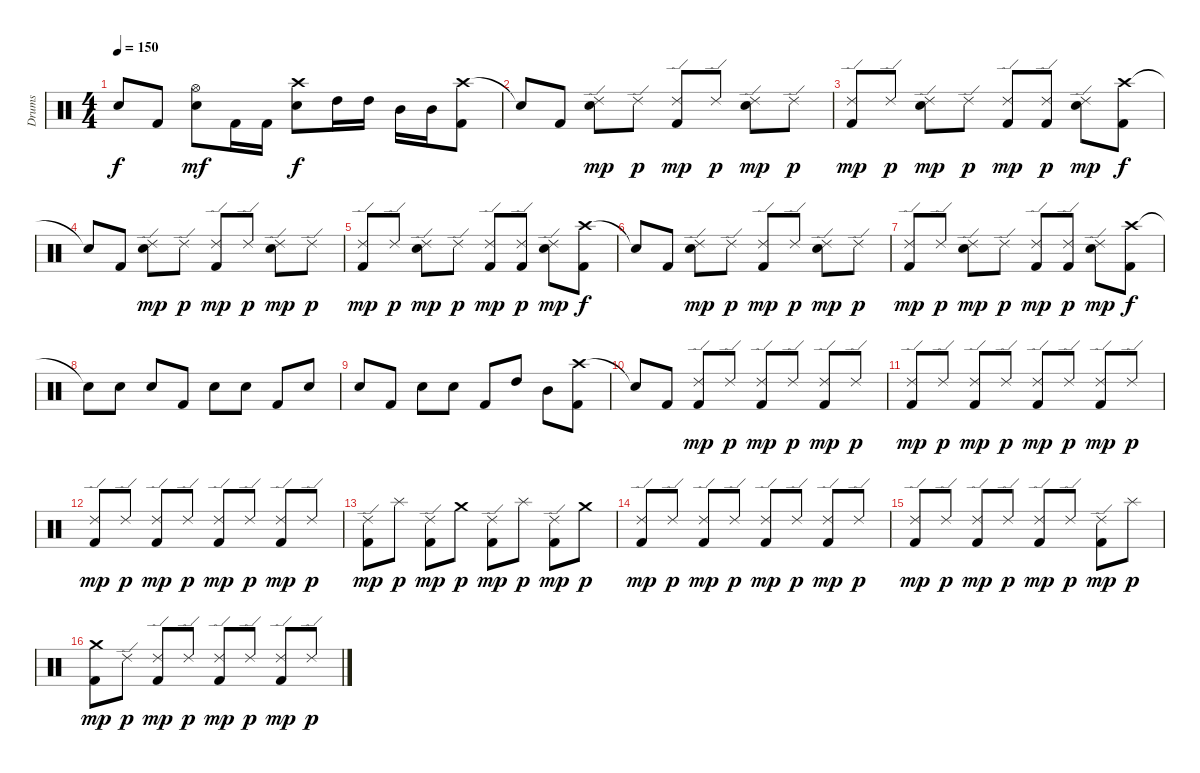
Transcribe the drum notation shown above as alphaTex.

\track ("Drums" "Drums") {instrument percussion}
\staff {score}
\articulation defaults
\ts (4 4)
\tempo 150
\clef neutral
\ks c "Snare (hit)"{t}.8{dy f} "Kick (hit) 2".8
("Hi-Hat (open)" "Electric Snare (hit)").8{dy mf} "Kick (hit) 2".16 "Kick (hit) 2".16 ("Crash high (hit)" "Electric Snare (hit)").8{dy f} "High Tom (hit)".16 "High Tom (hit)".16 "Mid Tom (hit)".16 "Mid Tom (hit)".16 ("Crash high (hit)" "Kick (hit) 2").8 |
"Snare (hit)"{t}.8 "Kick (hit) 2".8 ("Ride (edge) 2" "Electric Snare (hit)").8{dy mp} "Ride (edge) 2".8{dy p} ("Ride (edge) 2" "Kick (hit) 2").8{dy mp} "Ride (edge) 2".8{dy p} ("Ride (edge) 2" "Electric Snare (hit)").8{dy mp} "Ride (edge) 2".8{dy p} |
("Ride (edge) 2" "Kick (hit) 2").8{dy mp} "Ride (edge) 2".8{dy p} ("Ride (edge) 2" "Electric Snare (hit)").8{dy mp} "Ride (edge) 2".8{dy p} ("Ride (edge) 2" "Kick (hit) 2").8{dy mp} ("Ride (edge) 2" "Kick (hit) 2").8{dy p} ("Ride (edge) 2" "Electric Snare (hit)").8{dy mp} ("Crash high (hit)" "Kick (hit) 2").8{dy f} |
"Snare (hit)"{t}.8 "Kick (hit) 2".8 ("Ride (edge) 2" "Electric Snare (hit)").8{dy mp} "Ride (edge) 2".8{dy p} ("Ride (edge) 2" "Kick (hit) 2").8{dy mp} "Ride (edge) 2".8{dy p} ("Ride (edge) 2" "Electric Snare (hit)").8{dy mp} "Ride (edge) 2".8{dy p} |
("Ride (edge) 2" "Kick (hit) 2").8{dy mp} "Ride (edge) 2".8{dy p} ("Ride (edge) 2" "Electric Snare (hit)").8{dy mp} "Ride (edge) 2".8{dy p} ("Ride (edge) 2" "Kick (hit) 2").8{dy mp} ("Ride (edge) 2" "Kick (hit) 2").8{dy p} ("Ride (edge) 2" "Electric Snare (hit)").8{dy mp} ("Crash high (hit)" "Kick (hit) 2").8{dy f} |
"Snare (hit)"{t}.8 "Kick (hit) 2".8 ("Ride (edge) 2" "Electric Snare (hit)").8{dy mp} "Ride (edge) 2".8{dy p} ("Ride (edge) 2" "Kick (hit) 2").8{dy mp} "Ride (edge) 2".8{dy p} ("Ride (edge) 2" "Electric Snare (hit)").8{dy mp} "Ride (edge) 2".8{dy p} |
("Ride (edge) 2" "Kick (hit) 2").8{dy mp} "Ride (edge) 2".8{dy p} ("Ride (edge) 2" "Electric Snare (hit)").8{dy mp} "Ride (edge) 2".8{dy p} ("Ride (edge) 2" "Kick (hit) 2").8{dy mp} ("Ride (edge) 2" "Kick (hit) 2").8{dy p} ("Ride (edge) 2" "Electric Snare (hit)").8{dy mp} ("Crash high (hit)" "Kick (hit) 2").8{dy f} |
"Snare (hit)"{t}.8 "Electric Snare (hit)".8 "Electric Snare (hit)".8 "Kick (hit) 2".8 "Electric Snare (hit)".8 "Electric Snare (hit)".8 "Kick (hit) 2".8 "Electric Snare (hit)".8 |
"Electric Snare (hit)".8 "Kick (hit) 2".8 "Electric Snare (hit)".8 "Electric Snare (hit)".8 "Kick (hit) 2".8 "High Tom (hit)".8 "Mid Tom (hit)".8 ("Crash high (hit)" "Kick (hit) 2").8 |
"Snare (hit)"{t}.8 "Kick (hit) 2".8 ("Ride (edge) 2" "Kick (hit) 2").8{dy mp} "Ride (edge) 2".8{dy p} ("Ride (edge) 2" "Kick (hit) 2").8{dy mp} "Ride (edge) 2".8{dy p} ("Ride (edge) 2" "Kick (hit) 2").8{dy mp} "Ride (edge) 2".8{dy p} |
("Ride (edge) 2" "Kick (hit) 2").8{dy mp} "Ride (edge) 2".8{dy p} ("Ride (edge) 2" "Kick (hit) 2").8{dy mp} "Ride (edge) 2".8{dy p} ("Ride (edge) 2" "Kick (hit) 2").8{dy mp} "Ride (edge) 2".8{dy p} ("Ride (edge) 2" "Kick (hit) 2").8{dy mp} "Ride (edge) 2".8{dy p} |
("Ride (edge) 2" "Kick (hit) 2").8{dy mp} "Ride (edge) 2".8{dy p} ("Ride (edge) 2" "Kick (hit) 2").8{dy mp} "Ride (edge) 2".8{dy p} ("Ride (edge) 2" "Kick (hit) 2").8{dy mp} "Ride (edge) 2".8{dy p} ("Ride (edge) 2" "Kick (hit) 2").8{dy mp} "Ride (edge) 2".8{dy p} |
("Ride (edge) 2" "Kick (hit) 2").8{dy mp} "Splash (hit)".8{dy p} ("Ride (edge) 2" "Kick (hit) 2").8{dy mp} "Crash medium (hit)".8{dy p} ("Ride (edge) 2" "Kick (hit) 2").8{dy mp} "Splash (hit)".8{dy p} ("Ride (edge) 2" "Kick (hit) 2").8{dy mp} "Crash medium (hit)".8{dy p} |
("Ride (edge) 2" "Kick (hit) 2").8{dy mp} "Ride (edge) 2".8{dy p} ("Ride (edge) 2" "Kick (hit) 2").8{dy mp} "Ride (edge) 2".8{dy p} ("Ride (edge) 2" "Kick (hit) 2").8{dy mp} "Ride (edge) 2".8{dy p} ("Ride (edge) 2" "Kick (hit) 2").8{dy mp} "Ride (edge) 2".8{dy p} |
("Ride (edge) 2" "Kick (hit) 2").8{dy mp} "Ride (edge) 2".8{dy p} ("Ride (edge) 2" "Kick (hit) 2").8{dy mp} "Ride (edge) 2".8{dy p} ("Ride (edge) 2" "Kick (hit) 2").8{dy mp} "Ride (edge) 2".8{dy p} ("Ride (edge) 2" "Kick (hit) 2").8{dy mp} "Splash (hit)".8{dy p} |
("Crash medium (hit)" "Kick (hit) 2").8{dy mp} "Ride (edge) 2".8{dy p} ("Ride (edge) 2" "Kick (hit) 2").8{dy mp} "Ride (edge) 2".8{dy p} ("Ride (edge) 2" "Kick (hit) 2").8{dy mp} "Ride (edge) 2".8{dy p} ("Ride (edge) 2" "Kick (hit) 2").8{dy mp} "Ride (edge) 2".8{dy p}
